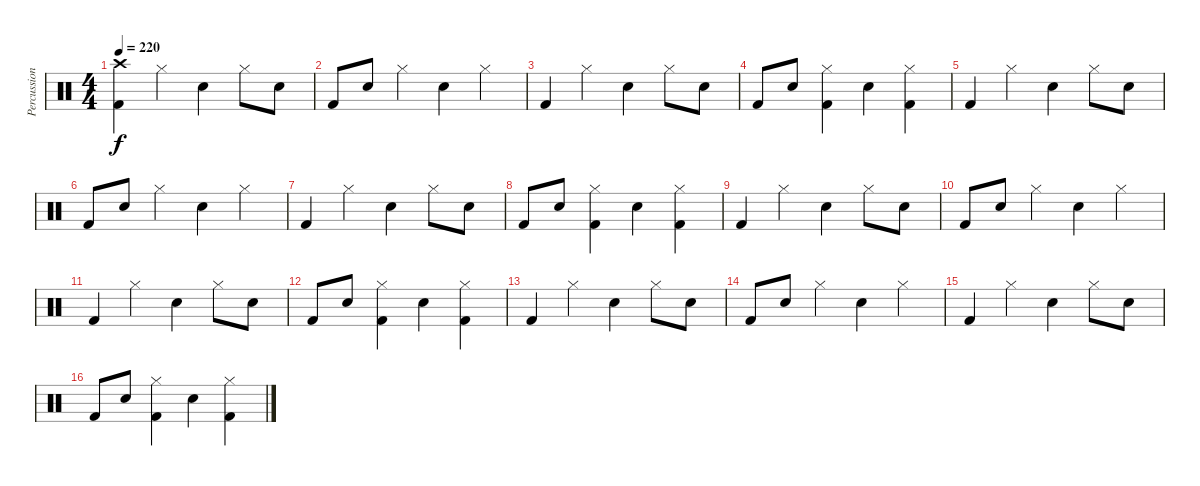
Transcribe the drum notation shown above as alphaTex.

\track ("Percussion" "Percussion") {instrument percussion}
\staff {score}
\articulation defaults
\ts (4 4)
\tempo 220
\clef neutral
\ks c
("Crash high (hit)" "Kick (hit) 2").4{dy f} "Hi-Hat (closed)".4 "Electric Snare (hit)".4 "Hi-Hat (closed)".8 "Electric Snare (hit)".8 |
"Kick (hit) 2".8 "Electric Snare (hit)".8 "Hi-Hat (closed)".4 "Electric Snare (hit)".4 "Hi-Hat (closed)".4 |
"Kick (hit) 2".4 "Hi-Hat (closed)".4 "Electric Snare (hit)".4 "Hi-Hat (closed)".8 "Electric Snare (hit)".8 |
"Kick (hit) 2".8 "Electric Snare (hit)".8 ("Hi-Hat (closed)" "Kick (hit) 2").4 "Electric Snare (hit)".4 ("Hi-Hat (closed)" "Kick (hit) 2").4 |
"Kick (hit) 2".4 "Hi-Hat (closed)".4 "Electric Snare (hit)".4 "Hi-Hat (closed)".8 "Electric Snare (hit)".8 |
"Kick (hit) 2".8 "Electric Snare (hit)".8 "Hi-Hat (closed)".4 "Electric Snare (hit)".4 "Hi-Hat (closed)".4 |
"Kick (hit) 2".4 "Hi-Hat (closed)".4 "Electric Snare (hit)".4 "Hi-Hat (closed)".8 "Electric Snare (hit)".8 |
"Kick (hit) 2".8 "Electric Snare (hit)".8 ("Hi-Hat (closed)" "Kick (hit) 2").4 "Electric Snare (hit)".4 ("Hi-Hat (closed)" "Kick (hit) 2").4 |
"Kick (hit) 2".4 "Hi-Hat (closed)".4 "Electric Snare (hit)".4 "Hi-Hat (closed)".8 "Electric Snare (hit)".8 |
"Kick (hit) 2".8 "Electric Snare (hit)".8 "Hi-Hat (closed)".4 "Electric Snare (hit)".4 "Hi-Hat (closed)".4 |
"Kick (hit) 2".4 "Hi-Hat (closed)".4 "Electric Snare (hit)".4 "Hi-Hat (closed)".8 "Electric Snare (hit)".8 |
"Kick (hit) 2".8 "Electric Snare (hit)".8 ("Hi-Hat (closed)" "Kick (hit) 2").4 "Electric Snare (hit)".4 ("Hi-Hat (closed)" "Kick (hit) 2").4 |
"Kick (hit) 2".4 "Hi-Hat (closed)".4 "Electric Snare (hit)".4 "Hi-Hat (closed)".8 "Electric Snare (hit)".8 |
"Kick (hit) 2".8 "Electric Snare (hit)".8 "Hi-Hat (closed)".4 "Electric Snare (hit)".4 "Hi-Hat (closed)".4 |
"Kick (hit) 2".4 "Hi-Hat (closed)".4 "Electric Snare (hit)".4 "Hi-Hat (closed)".8 "Electric Snare (hit)".8 |
"Kick (hit) 2".8 "Electric Snare (hit)".8 ("Hi-Hat (closed)" "Kick (hit) 2").4 "Electric Snare (hit)".4 ("Hi-Hat (closed)" "Kick (hit) 2").4
